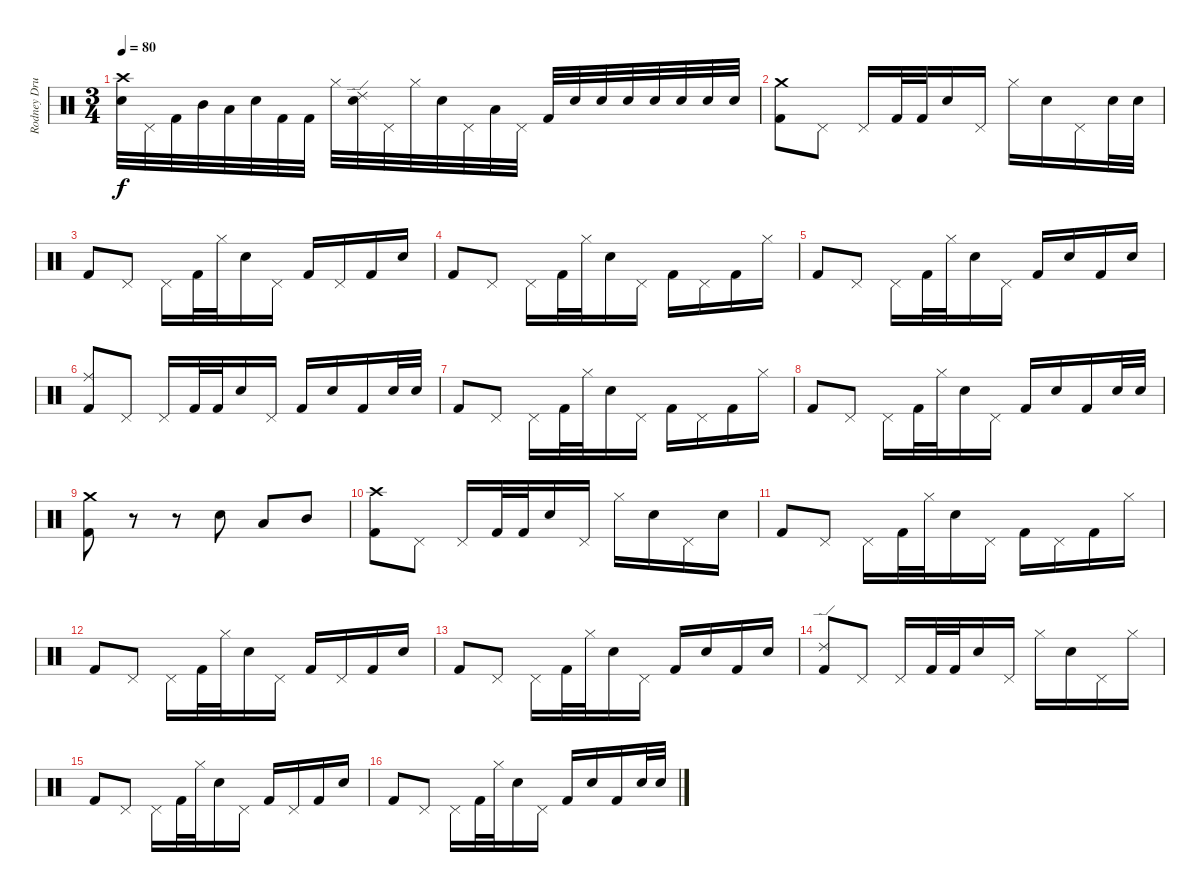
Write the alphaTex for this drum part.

\track ("Rodney Drums" "Rodney Dru") {instrument percussion}
\staff {score}
\articulation defaults
\ts (3 4)
\tempo 80
\clef neutral
\ks c
("Crash high (hit)" "Electric Snare (hit)").32{dy f} "Pedal Hi-Hat (hit)".32 "Kick (hit) 2".32 "Mid Tom (hit)".32 "Low Tom (hit)".32 "Electric Snare (hit)".32 "Kick (hit) 2".32 "Kick (hit) 2".32 "Hi-Hat (closed)".32 ("Electric Snare (hit)" "Ride (edge) 2").32 "Pedal Hi-Hat (hit)".32 "Hi-Hat (closed)".32 "Electric Snare (hit)".32 "Pedal Hi-Hat (hit)".32 "Low Tom (hit)".32 "Pedal Hi-Hat (hit)".32 "Kick (hit) 2".32 "Electric Snare (hit)".32 "Electric Snare (hit)".32 "Electric Snare (hit)".32 "Electric Snare (hit)".32 "Electric Snare (hit)".32 "Electric Snare (hit)".32 "Electric Snare (hit)".32 |
("Crash medium (hit)" "Kick (hit) 2").8 "Pedal Hi-Hat (hit)".8 "Pedal Hi-Hat (hit)".16 "Kick (hit) 2".32 "Kick (hit) 2".32 "Electric Snare (hit)".16 "Pedal Hi-Hat (hit)".16 "Hi-Hat (closed)".16 "Electric Snare (hit)".16 "Pedal Hi-Hat (hit)".16 "Electric Snare (hit)".32 "Electric Snare (hit)".32 |
"Kick (hit) 2".8 "Pedal Hi-Hat (hit)".8 "Pedal Hi-Hat (hit)".16 "Kick (hit) 2".32 "Hi-Hat (closed)".32 "Electric Snare (hit)".16 "Pedal Hi-Hat (hit)".16 "Kick (hit) 2".16 "Pedal Hi-Hat (hit)".16 "Kick (hit) 2".16 "Electric Snare (hit)".16 |
"Kick (hit) 2".8 "Pedal Hi-Hat (hit)".8 "Pedal Hi-Hat (hit)".16 "Kick (hit) 2".32 "Hi-Hat (closed)".32 "Electric Snare (hit)".16 "Pedal Hi-Hat (hit)".16 "Kick (hit) 2".16 "Pedal Hi-Hat (hit)".16 "Kick (hit) 2".16 "Hi-Hat (closed)".16 |
"Kick (hit) 2".8 "Pedal Hi-Hat (hit)".8 "Pedal Hi-Hat (hit)".16 "Kick (hit) 2".32 "Hi-Hat (closed)".32 "Electric Snare (hit)".16 "Pedal Hi-Hat (hit)".16 "Kick (hit) 2".16 "Electric Snare (hit)".16 "Kick (hit) 2".16 "Electric Snare (hit)".16 |
("Ride (middle)" "Kick (hit) 2").8 "Pedal Hi-Hat (hit)".8 "Pedal Hi-Hat (hit)".16 "Kick (hit) 2".32 "Kick (hit) 2".32 "Electric Snare (hit)".16 "Pedal Hi-Hat (hit)".16 "Kick (hit) 2".16 "Electric Snare (hit)".16 "Kick (hit) 2".16 "Electric Snare (hit)".32 "Electric Snare (hit)".32 |
"Kick (hit) 2".8 "Pedal Hi-Hat (hit)".8 "Pedal Hi-Hat (hit)".16 "Kick (hit) 2".32 "Hi-Hat (closed)".32 "Electric Snare (hit)".16 "Pedal Hi-Hat (hit)".16 "Kick (hit) 2".16 "Pedal Hi-Hat (hit)".16 "Kick (hit) 2".16 "Hi-Hat (closed)".16 |
"Kick (hit) 2".8 "Pedal Hi-Hat (hit)".8 "Pedal Hi-Hat (hit)".16 "Kick (hit) 2".32 "Hi-Hat (closed)".32 "Electric Snare (hit)".16 "Pedal Hi-Hat (hit)".16 "Kick (hit) 2".16 "Electric Snare (hit)".16 "Kick (hit) 2".16 "Electric Snare (hit)".32 "Electric Snare (hit)".32 |
("Crash medium (hit)" "Kick (hit) 2").8 r.8 r.8 "Electric Snare (hit)".8 "Low Tom (hit)".8 "Mid Tom (hit)".8 |
("Crash high (hit)" "Kick (hit) 2").8 "Pedal Hi-Hat (hit)".8 "Pedal Hi-Hat (hit)".16 "Kick (hit) 2".32 "Kick (hit) 2".32 "Electric Snare (hit)".16 "Pedal Hi-Hat (hit)".16 "Hi-Hat (closed)".16 "Electric Snare (hit)".16 "Pedal Hi-Hat (hit)".16 "Electric Snare (hit)".16 |
"Kick (hit) 2".8 "Pedal Hi-Hat (hit)".8 "Pedal Hi-Hat (hit)".16 "Kick (hit) 2".32 "Hi-Hat (closed)".32 "Electric Snare (hit)".16 "Pedal Hi-Hat (hit)".16 "Kick (hit) 2".16 "Pedal Hi-Hat (hit)".16 "Kick (hit) 2".16 "Hi-Hat (closed)".16 |
"Kick (hit) 2".8 "Pedal Hi-Hat (hit)".8 "Pedal Hi-Hat (hit)".16 "Kick (hit) 2".32 "Hi-Hat (closed)".32 "Electric Snare (hit)".16 "Pedal Hi-Hat (hit)".16 "Kick (hit) 2".16 "Pedal Hi-Hat (hit)".16 "Kick (hit) 2".16 "Electric Snare (hit)".16 |
"Kick (hit) 2".8 "Pedal Hi-Hat (hit)".8 "Pedal Hi-Hat (hit)".16 "Kick (hit) 2".32 "Hi-Hat (closed)".32 "Electric Snare (hit)".16 "Pedal Hi-Hat (hit)".16 "Kick (hit) 2".16 "Electric Snare (hit)".16 "Kick (hit) 2".16 "Electric Snare (hit)".16 |
("Ride (edge) 2" "Kick (hit) 2").8 "Pedal Hi-Hat (hit)".8 "Pedal Hi-Hat (hit)".16 "Kick (hit) 2".32 "Kick (hit) 2".32 "Electric Snare (hit)".16 "Pedal Hi-Hat (hit)".16 "Hi-Hat (closed)".16 "Electric Snare (hit)".16 "Pedal Hi-Hat (hit)".16 "Hi-Hat (closed)".16 |
"Kick (hit) 2".8 "Pedal Hi-Hat (hit)".8 "Pedal Hi-Hat (hit)".16 "Kick (hit) 2".32 "Hi-Hat (closed)".32 "Electric Snare (hit)".16 "Pedal Hi-Hat (hit)".16 "Kick (hit) 2".16 "Pedal Hi-Hat (hit)".16 "Kick (hit) 2".16 "Electric Snare (hit)".16 |
"Kick (hit) 2".8 "Pedal Hi-Hat (hit)".8 "Pedal Hi-Hat (hit)".16 "Kick (hit) 2".32 "Hi-Hat (closed)".32 "Electric Snare (hit)".16 "Pedal Hi-Hat (hit)".16 "Kick (hit) 2".16 "Electric Snare (hit)".16 "Kick (hit) 2".16 "Electric Snare (hit)".32 "Electric Snare (hit)".32
